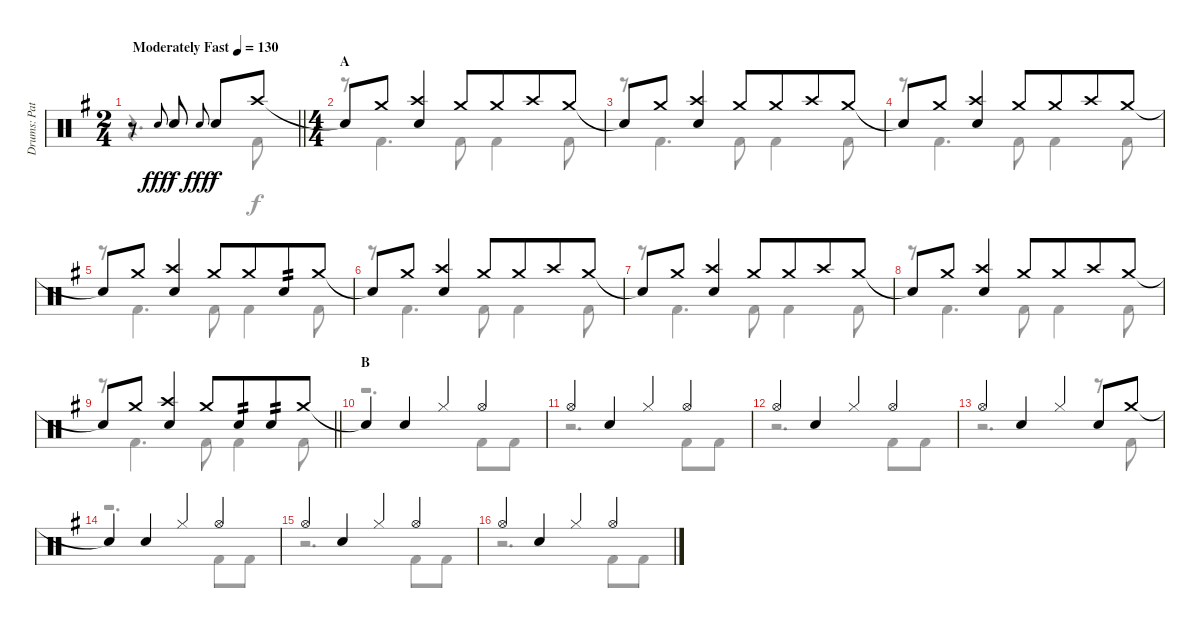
\track ("Drums: Pat" "Drums: Pat") {instrument percussion}
\staff {score}
\articulation defaults
\voice
\ts (2 4)
\tempo (130 "Moderately Fast")
\clef neutral
\barLineRight lightlight
\ks g
r.8{dy fff} "Electric Snare (hit)".8{gr onbeat} "Snare (hit) 2".8{dy f} "Electric Snare (hit)".8{gr onbeat dy fff beam merge} "Snare (hit) 2".8{dy f} "Crash high (hit)".8 |
\ts (4 4)
\section ("" "A")
"Snare (hit)"{t}.8 "Crash medium (hit)".8 ("Crash high (hit)" "Snare (hit) 2").4 "Crash medium (hit)".8 "Crash medium (hit)".8{beam merge} "Crash high (hit)".8 "Crash medium (hit)".8 |
"Snare (hit)"{t}.8 "Crash medium (hit)".8 ("Crash high (hit)" "Snare (hit) 2").4 "Crash medium (hit)".8 "Crash medium (hit)".8{beam merge} "Crash high (hit)".8 "Crash medium (hit)".8 |
"Snare (hit)"{t}.8 "Crash medium (hit)".8 ("Crash high (hit)" "Snare (hit) 2").4 "Crash medium (hit)".8 "Crash medium (hit)".8{beam merge} "Crash high (hit)".8 "Crash medium (hit)".8 |
"Snare (hit)"{t}.8 "Crash medium (hit)".8 ("Crash high (hit)" "Snare (hit) 2").4 "Crash medium (hit)".8 "Crash medium (hit)".8{beam merge} "Snare (hit) 2".8{tp 2} "Crash medium (hit)".8 |
"Snare (hit)"{t}.8 "Crash medium (hit)".8 ("Crash high (hit)" "Snare (hit) 2").4 "Crash medium (hit)".8 "Crash medium (hit)".8{beam merge} "Crash high (hit)".8 "Crash medium (hit)".8 |
"Snare (hit)"{t}.8 "Crash medium (hit)".8 ("Crash high (hit)" "Snare (hit) 2").4 "Crash medium (hit)".8 "Crash medium (hit)".8{beam merge} "Crash high (hit)".8 "Crash medium (hit)".8 |
"Snare (hit)"{t}.8 "Crash medium (hit)".8 ("Crash high (hit)" "Snare (hit) 2").4 "Crash medium (hit)".8 "Crash medium (hit)".8{beam merge} "Crash high (hit)".8 "Crash medium (hit)".8 |
\barLineRight lightlight "Snare (hit)"{t}.8 "Crash medium (hit)".8
("Crash high (hit)" "Snare (hit) 2").4 "Crash medium (hit)".8{beam merge} "Snare (hit) 2".8{tp 2 beam merge} "Snare (hit) 2".8{tp 2} "Crash medium (hit)".8 |
\section ("" "B")
"Snare (hit)"{t}.4 "Snare (hit) 2".4 "Hi-Hat (closed)".4 "Hi-Hat (open)".4 |
"Hi-Hat (open)".4 "Snare (hit) 2".4 "Hi-Hat (closed)".4 "Hi-Hat (open)".4 |
"Hi-Hat (open)".4 "Snare (hit) 2".4 "Hi-Hat (closed)".4 "Hi-Hat (open)".4 |
"Hi-Hat (open)".4 "Snare (hit) 2".4 "Hi-Hat (closed)".4 "Snare (hit) 2".8 "Crash medium (hit)".8 |
"Snare (hit)"{t}.4 "Snare (hit) 2".4 "Hi-Hat (closed)".4 "Hi-Hat (open)".4 |
"Hi-Hat (open)".4 "Snare (hit) 2".4 "Hi-Hat (closed)".4 "Hi-Hat (open)".4 |
"Hi-Hat (open)".4 "Snare (hit) 2".4 "Hi-Hat (closed)".4 "Hi-Hat (open)".4
\voice
\clef neutral
\ottava regular
\simile none
\barLineRight lightlight
\ks g
r.4{d dy f} "Kick (hit) 2".8 |
r.8 "Kick (hit) 2".4{d} "Kick (hit) 2".8 "Kick (hit) 2".4 "Kick (hit) 2".8 |
r.8 "Kick (hit) 2".4{d} "Kick (hit) 2".8 "Kick (hit) 2".4 "Kick (hit) 2".8 |
r.8 "Kick (hit) 2".4{d} "Kick (hit) 2".8 "Kick (hit) 2".4 "Kick (hit) 2".8 |
r.8 "Kick (hit) 2".4{d} "Kick (hit) 2".8 "Kick (hit) 2".4 "Kick (hit) 2".8 |
r.8 "Kick (hit) 2".4{d} "Kick (hit) 2".8 "Kick (hit) 2".4 "Kick (hit) 2".8 |
r.8 "Kick (hit) 2".4{d} "Kick (hit) 2".8 "Kick (hit) 2".4 "Kick (hit) 2".8 |
r.8 "Kick (hit) 2".4{d} "Kick (hit) 2".8 "Kick (hit) 2".4 "Kick (hit) 2".8 |
\barLineRight lightlight
r.8 "Kick (hit) 2".4{d} "Kick (hit) 2".8 "Kick (hit) 2".4 "Kick (hit) 2".8 |
r.2{d} "Kick (hit) 2".8 "Kick (hit) 2".8 |
r.2{d} "Kick (hit) 2".8 "Kick (hit) 2".8 |
r.2{d} "Kick (hit) 2".8 "Kick (hit) 2".8 |
r.2{d} r.8 "Kick (hit) 2".8 |
r.2{d} "Kick (hit) 2".8 "Kick (hit) 2".8 |
r.2{d} "Kick (hit) 2".8 "Kick (hit) 2".8 |
r.2{d} "Kick (hit) 2".8 "Kick (hit) 2".8
